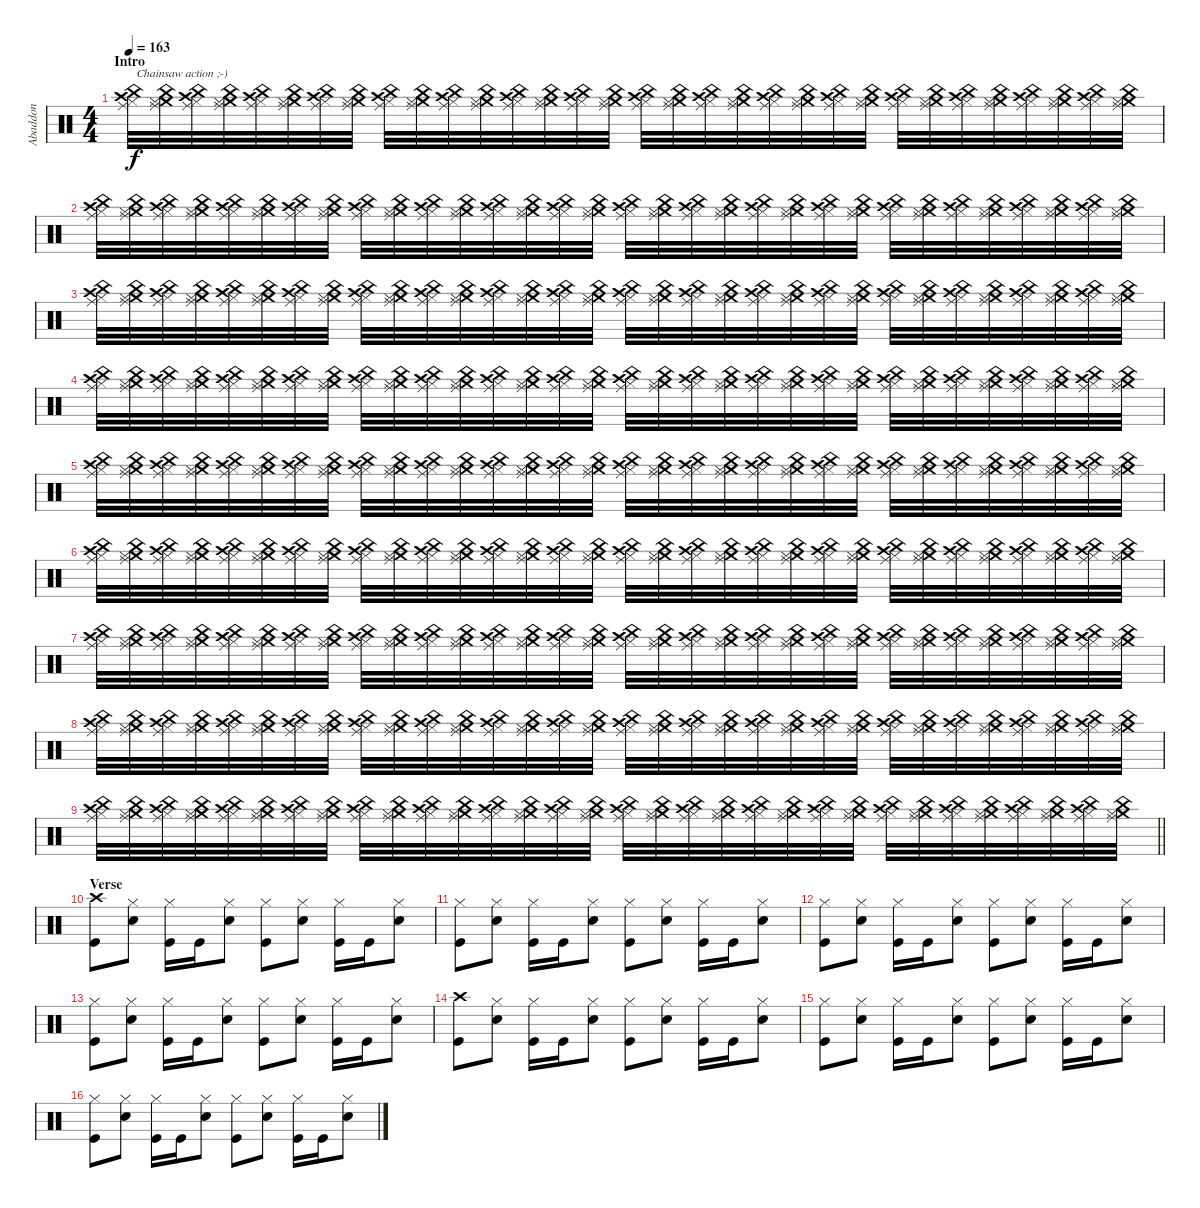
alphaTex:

\track ("Abaddon" "Abaddon") {instrument percussion}
\staff {score}
\articulation defaults
\ts (4 4)
\section ("" "Intro")
\tempo 163
\clef neutral
\ks c
("Crash high (hit)" "Ride (middle)" "Hi-Hat (closed)" "China (hit)").32{txt "Chainsaw action ;-)" dy f} ("Crash medium (hit)" "Ride (middle)" "Hi-Hat (closed)" "China (hit)").32 ("Crash high (hit)" "Ride (middle)" "Hi-Hat (closed)" "China (hit)").32 ("Crash medium (hit)" "Ride (middle)" "Hi-Hat (closed)" "China (hit)").32 ("Crash high (hit)" "Ride (middle)" "Hi-Hat (closed)" "China (hit)").32 ("Crash medium (hit)" "Ride (middle)" "Hi-Hat (closed)" "China (hit)").32 ("Crash high (hit)" "Ride (middle)" "Hi-Hat (closed)" "China (hit)").32 ("Crash medium (hit)" "Ride (middle)" "Hi-Hat (closed)" "China (hit)").32 ("Crash high (hit)" "Ride (middle)" "Hi-Hat (closed)" "China (hit)").32 ("Crash medium (hit)" "Ride (middle)" "Hi-Hat (closed)" "China (hit)").32 ("Crash high (hit)" "Ride (middle)" "Hi-Hat (closed)" "China (hit)").32 ("Crash medium (hit)" "Ride (middle)" "Hi-Hat (closed)" "China (hit)").32 ("Crash high (hit)" "Ride (middle)" "Hi-Hat (closed)" "China (hit)").32 ("Crash medium (hit)" "Ride (middle)" "Hi-Hat (closed)" "China (hit)").32 ("Crash high (hit)" "Ride (middle)" "Hi-Hat (closed)" "China (hit)").32 ("Crash medium (hit)" "Ride (middle)" "Hi-Hat (closed)" "China (hit)").32 ("Crash high (hit)" "Ride (middle)" "Hi-Hat (closed)" "China (hit)").32 ("Crash medium (hit)" "Ride (middle)" "Hi-Hat (closed)" "China (hit)").32 ("Crash high (hit)" "Ride (middle)" "Hi-Hat (closed)" "China (hit)").32 ("Crash medium (hit)" "Ride (middle)" "Hi-Hat (closed)" "China (hit)").32 ("Crash high (hit)" "Ride (middle)" "Hi-Hat (closed)" "China (hit)").32 ("Crash medium (hit)" "Ride (middle)" "Hi-Hat (closed)" "China (hit)").32 ("Crash high (hit)" "Ride (middle)" "Hi-Hat (closed)" "China (hit)").32 ("Crash medium (hit)" "Ride (middle)" "Hi-Hat (closed)" "China (hit)").32 ("Crash high (hit)" "Ride (middle)" "Hi-Hat (closed)" "China (hit)").32 ("Crash medium (hit)" "Ride (middle)" "Hi-Hat (closed)" "China (hit)").32 ("Crash high (hit)" "Ride (middle)" "Hi-Hat (closed)" "China (hit)").32 ("Crash medium (hit)" "Ride (middle)" "Hi-Hat (closed)" "China (hit)").32 ("Crash high (hit)" "Ride (middle)" "Hi-Hat (closed)" "China (hit)").32 ("Crash medium (hit)" "Ride (middle)" "Hi-Hat (closed)" "China (hit)").32 ("Crash high (hit)" "Ride (middle)" "Hi-Hat (closed)" "China (hit)").32 ("Crash medium (hit)" "Ride (middle)" "Hi-Hat (closed)" "China (hit)").32 |
("Crash high (hit)" "Ride (middle)" "Hi-Hat (closed)" "China (hit)").32 ("Crash medium (hit)" "Ride (middle)" "Hi-Hat (closed)" "China (hit)").32 ("Crash high (hit)" "Ride (middle)" "Hi-Hat (closed)" "China (hit)").32 ("Crash medium (hit)" "Ride (middle)" "Hi-Hat (closed)" "China (hit)").32 ("Crash high (hit)" "Ride (middle)" "Hi-Hat (closed)" "China (hit)").32 ("Crash medium (hit)" "Ride (middle)" "Hi-Hat (closed)" "China (hit)").32 ("Crash high (hit)" "Ride (middle)" "Hi-Hat (closed)" "China (hit)").32 ("Crash medium (hit)" "Ride (middle)" "Hi-Hat (closed)" "China (hit)").32 ("Crash high (hit)" "Ride (middle)" "Hi-Hat (closed)" "China (hit)").32 ("Crash medium (hit)" "Ride (middle)" "Hi-Hat (closed)" "China (hit)").32 ("Crash high (hit)" "Ride (middle)" "Hi-Hat (closed)" "China (hit)").32 ("Crash medium (hit)" "Ride (middle)" "Hi-Hat (closed)" "China (hit)").32 ("Crash high (hit)" "Ride (middle)" "Hi-Hat (closed)" "China (hit)").32 ("Crash medium (hit)" "Ride (middle)" "Hi-Hat (closed)" "China (hit)").32 ("Crash high (hit)" "Ride (middle)" "Hi-Hat (closed)" "China (hit)").32 ("Crash medium (hit)" "Ride (middle)" "Hi-Hat (closed)" "China (hit)").32 ("Crash high (hit)" "Ride (middle)" "Hi-Hat (closed)" "China (hit)").32 ("Crash medium (hit)" "Ride (middle)" "Hi-Hat (closed)" "China (hit)").32 ("Crash high (hit)" "Ride (middle)" "Hi-Hat (closed)" "China (hit)").32 ("Crash medium (hit)" "Ride (middle)" "Hi-Hat (closed)" "China (hit)").32 ("Crash high (hit)" "Ride (middle)" "Hi-Hat (closed)" "China (hit)").32 ("Crash medium (hit)" "Ride (middle)" "Hi-Hat (closed)" "China (hit)").32 ("Crash high (hit)" "Ride (middle)" "Hi-Hat (closed)" "China (hit)").32 ("Crash medium (hit)" "Ride (middle)" "Hi-Hat (closed)" "China (hit)").32 ("Crash high (hit)" "Ride (middle)" "Hi-Hat (closed)" "China (hit)").32 ("Crash medium (hit)" "Ride (middle)" "Hi-Hat (closed)" "China (hit)").32 ("Crash high (hit)" "Ride (middle)" "Hi-Hat (closed)" "China (hit)").32 ("Crash medium (hit)" "Ride (middle)" "Hi-Hat (closed)" "China (hit)").32 ("Crash high (hit)" "Ride (middle)" "Hi-Hat (closed)" "China (hit)").32 ("Crash medium (hit)" "Ride (middle)" "Hi-Hat (closed)" "China (hit)").32 ("Crash high (hit)" "Ride (middle)" "Hi-Hat (closed)" "China (hit)").32 ("Crash medium (hit)" "Ride (middle)" "Hi-Hat (closed)" "China (hit)").32 |
("Crash high (hit)" "Ride (middle)" "Hi-Hat (closed)" "China (hit)").32 ("Crash medium (hit)" "Ride (middle)" "Hi-Hat (closed)" "China (hit)").32 ("Crash high (hit)" "Ride (middle)" "Hi-Hat (closed)" "China (hit)").32 ("Crash medium (hit)" "Ride (middle)" "Hi-Hat (closed)" "China (hit)").32 ("Crash high (hit)" "Ride (middle)" "Hi-Hat (closed)" "China (hit)").32 ("Crash medium (hit)" "Ride (middle)" "Hi-Hat (closed)" "China (hit)").32 ("Crash high (hit)" "Ride (middle)" "Hi-Hat (closed)" "China (hit)").32 ("Crash medium (hit)" "Ride (middle)" "Hi-Hat (closed)" "China (hit)").32 ("Crash high (hit)" "Ride (middle)" "Hi-Hat (closed)" "China (hit)").32 ("Crash medium (hit)" "Ride (middle)" "Hi-Hat (closed)" "China (hit)").32 ("Crash high (hit)" "Ride (middle)" "Hi-Hat (closed)" "China (hit)").32 ("Crash medium (hit)" "Ride (middle)" "Hi-Hat (closed)" "China (hit)").32 ("Crash high (hit)" "Ride (middle)" "Hi-Hat (closed)" "China (hit)").32 ("Crash medium (hit)" "Ride (middle)" "Hi-Hat (closed)" "China (hit)").32 ("Crash high (hit)" "Ride (middle)" "Hi-Hat (closed)" "China (hit)").32 ("Crash medium (hit)" "Ride (middle)" "Hi-Hat (closed)" "China (hit)").32 ("Crash high (hit)" "Ride (middle)" "Hi-Hat (closed)" "China (hit)").32 ("Crash medium (hit)" "Ride (middle)" "Hi-Hat (closed)" "China (hit)").32 ("Crash high (hit)" "Ride (middle)" "Hi-Hat (closed)" "China (hit)").32 ("Crash medium (hit)" "Ride (middle)" "Hi-Hat (closed)" "China (hit)").32 ("Crash high (hit)" "Ride (middle)" "Hi-Hat (closed)" "China (hit)").32 ("Crash medium (hit)" "Ride (middle)" "Hi-Hat (closed)" "China (hit)").32 ("Crash high (hit)" "Ride (middle)" "Hi-Hat (closed)" "China (hit)").32 ("Crash medium (hit)" "Ride (middle)" "Hi-Hat (closed)" "China (hit)").32 ("Crash high (hit)" "Ride (middle)" "Hi-Hat (closed)" "China (hit)").32 ("Crash medium (hit)" "Ride (middle)" "Hi-Hat (closed)" "China (hit)").32 ("Crash high (hit)" "Ride (middle)" "Hi-Hat (closed)" "China (hit)").32 ("Crash medium (hit)" "Ride (middle)" "Hi-Hat (closed)" "China (hit)").32 ("Crash high (hit)" "Ride (middle)" "Hi-Hat (closed)" "China (hit)").32 ("Crash medium (hit)" "Ride (middle)" "Hi-Hat (closed)" "China (hit)").32 ("Crash high (hit)" "Ride (middle)" "Hi-Hat (closed)" "China (hit)").32 ("Crash medium (hit)" "Ride (middle)" "Hi-Hat (closed)" "China (hit)").32 |
("Crash high (hit)" "Ride (middle)" "Hi-Hat (closed)" "China (hit)").32 ("Crash medium (hit)" "Ride (middle)" "Hi-Hat (closed)" "China (hit)").32 ("Crash high (hit)" "Ride (middle)" "Hi-Hat (closed)" "China (hit)").32 ("Crash medium (hit)" "Ride (middle)" "Hi-Hat (closed)" "China (hit)").32 ("Crash high (hit)" "Ride (middle)" "Hi-Hat (closed)" "China (hit)").32 ("Crash medium (hit)" "Ride (middle)" "Hi-Hat (closed)" "China (hit)").32 ("Crash high (hit)" "Ride (middle)" "Hi-Hat (closed)" "China (hit)").32 ("Crash medium (hit)" "Ride (middle)" "Hi-Hat (closed)" "China (hit)").32 ("Crash high (hit)" "Ride (middle)" "Hi-Hat (closed)" "China (hit)").32 ("Crash medium (hit)" "Ride (middle)" "Hi-Hat (closed)" "China (hit)").32 ("Crash high (hit)" "Ride (middle)" "Hi-Hat (closed)" "China (hit)").32 ("Crash medium (hit)" "Ride (middle)" "Hi-Hat (closed)" "China (hit)").32 ("Crash high (hit)" "Ride (middle)" "Hi-Hat (closed)" "China (hit)").32 ("Crash medium (hit)" "Ride (middle)" "Hi-Hat (closed)" "China (hit)").32 ("Crash high (hit)" "Ride (middle)" "Hi-Hat (closed)" "China (hit)").32 ("Crash medium (hit)" "Ride (middle)" "Hi-Hat (closed)" "China (hit)").32 ("Crash high (hit)" "Ride (middle)" "Hi-Hat (closed)" "China (hit)").32 ("Crash medium (hit)" "Ride (middle)" "Hi-Hat (closed)" "China (hit)").32 ("Crash high (hit)" "Ride (middle)" "Hi-Hat (closed)" "China (hit)").32 ("Crash medium (hit)" "Ride (middle)" "Hi-Hat (closed)" "China (hit)").32 ("Crash high (hit)" "Ride (middle)" "Hi-Hat (closed)" "China (hit)").32 ("Crash medium (hit)" "Ride (middle)" "Hi-Hat (closed)" "China (hit)").32 ("Crash high (hit)" "Ride (middle)" "Hi-Hat (closed)" "China (hit)").32 ("Crash medium (hit)" "Ride (middle)" "Hi-Hat (closed)" "China (hit)").32 ("Crash high (hit)" "Ride (middle)" "Hi-Hat (closed)" "China (hit)").32 ("Crash medium (hit)" "Ride (middle)" "Hi-Hat (closed)" "China (hit)").32 ("Crash high (hit)" "Ride (middle)" "Hi-Hat (closed)" "China (hit)").32 ("Crash medium (hit)" "Ride (middle)" "Hi-Hat (closed)" "China (hit)").32 ("Crash high (hit)" "Ride (middle)" "Hi-Hat (closed)" "China (hit)").32 ("Crash medium (hit)" "Ride (middle)" "Hi-Hat (closed)" "China (hit)").32 ("Crash high (hit)" "Ride (middle)" "Hi-Hat (closed)" "China (hit)").32 ("Crash medium (hit)" "Ride (middle)" "Hi-Hat (closed)" "China (hit)").32 |
("Crash high (hit)" "Ride (middle)" "Hi-Hat (closed)" "China (hit)").32 ("Crash medium (hit)" "Ride (middle)" "Hi-Hat (closed)" "China (hit)").32 ("Crash high (hit)" "Ride (middle)" "Hi-Hat (closed)" "China (hit)").32 ("Crash medium (hit)" "Ride (middle)" "Hi-Hat (closed)" "China (hit)").32 ("Crash high (hit)" "Ride (middle)" "Hi-Hat (closed)" "China (hit)").32 ("Crash medium (hit)" "Ride (middle)" "Hi-Hat (closed)" "China (hit)").32 ("Crash high (hit)" "Ride (middle)" "Hi-Hat (closed)" "China (hit)").32 ("Crash medium (hit)" "Ride (middle)" "Hi-Hat (closed)" "China (hit)").32 ("Crash high (hit)" "Ride (middle)" "Hi-Hat (closed)" "China (hit)").32 ("Crash medium (hit)" "Ride (middle)" "Hi-Hat (closed)" "China (hit)").32 ("Crash high (hit)" "Ride (middle)" "Hi-Hat (closed)" "China (hit)").32 ("Crash medium (hit)" "Ride (middle)" "Hi-Hat (closed)" "China (hit)").32 ("Crash high (hit)" "Ride (middle)" "Hi-Hat (closed)" "China (hit)").32 ("Crash medium (hit)" "Ride (middle)" "Hi-Hat (closed)" "China (hit)").32 ("Crash high (hit)" "Ride (middle)" "Hi-Hat (closed)" "China (hit)").32 ("Crash medium (hit)" "Ride (middle)" "Hi-Hat (closed)" "China (hit)").32 ("Crash high (hit)" "Ride (middle)" "Hi-Hat (closed)" "China (hit)").32 ("Crash medium (hit)" "Ride (middle)" "Hi-Hat (closed)" "China (hit)").32 ("Crash high (hit)" "Ride (middle)" "Hi-Hat (closed)" "China (hit)").32 ("Crash medium (hit)" "Ride (middle)" "Hi-Hat (closed)" "China (hit)").32 ("Crash high (hit)" "Ride (middle)" "Hi-Hat (closed)" "China (hit)").32 ("Crash medium (hit)" "Ride (middle)" "Hi-Hat (closed)" "China (hit)").32 ("Crash high (hit)" "Ride (middle)" "Hi-Hat (closed)" "China (hit)").32 ("Crash medium (hit)" "Ride (middle)" "Hi-Hat (closed)" "China (hit)").32 ("Crash high (hit)" "Ride (middle)" "Hi-Hat (closed)" "China (hit)").32 ("Crash medium (hit)" "Ride (middle)" "Hi-Hat (closed)" "China (hit)").32 ("Crash high (hit)" "Ride (middle)" "Hi-Hat (closed)" "China (hit)").32 ("Crash medium (hit)" "Ride (middle)" "Hi-Hat (closed)" "China (hit)").32 ("Crash high (hit)" "Ride (middle)" "Hi-Hat (closed)" "China (hit)").32 ("Crash medium (hit)" "Ride (middle)" "Hi-Hat (closed)" "China (hit)").32 ("Crash high (hit)" "Ride (middle)" "Hi-Hat (closed)" "China (hit)").32 ("Crash medium (hit)" "Ride (middle)" "Hi-Hat (closed)" "China (hit)").32 |
("Crash high (hit)" "Ride (middle)" "Hi-Hat (closed)" "China (hit)").32 ("Crash medium (hit)" "Ride (middle)" "Hi-Hat (closed)" "China (hit)").32 ("Crash high (hit)" "Ride (middle)" "Hi-Hat (closed)" "China (hit)").32 ("Crash medium (hit)" "Ride (middle)" "Hi-Hat (closed)" "China (hit)").32 ("Crash high (hit)" "Ride (middle)" "Hi-Hat (closed)" "China (hit)").32 ("Crash medium (hit)" "Ride (middle)" "Hi-Hat (closed)" "China (hit)").32 ("Crash high (hit)" "Ride (middle)" "Hi-Hat (closed)" "China (hit)").32 ("Crash medium (hit)" "Ride (middle)" "Hi-Hat (closed)" "China (hit)").32 ("Crash high (hit)" "Ride (middle)" "Hi-Hat (closed)" "China (hit)").32 ("Crash medium (hit)" "Ride (middle)" "Hi-Hat (closed)" "China (hit)").32 ("Crash high (hit)" "Ride (middle)" "Hi-Hat (closed)" "China (hit)").32 ("Crash medium (hit)" "Ride (middle)" "Hi-Hat (closed)" "China (hit)").32 ("Crash high (hit)" "Ride (middle)" "Hi-Hat (closed)" "China (hit)").32 ("Crash medium (hit)" "Ride (middle)" "Hi-Hat (closed)" "China (hit)").32 ("Crash high (hit)" "Ride (middle)" "Hi-Hat (closed)" "China (hit)").32 ("Crash medium (hit)" "Ride (middle)" "Hi-Hat (closed)" "China (hit)").32 ("Crash high (hit)" "Ride (middle)" "Hi-Hat (closed)" "China (hit)").32 ("Crash medium (hit)" "Ride (middle)" "Hi-Hat (closed)" "China (hit)").32 ("Crash high (hit)" "Ride (middle)" "Hi-Hat (closed)" "China (hit)").32 ("Crash medium (hit)" "Ride (middle)" "Hi-Hat (closed)" "China (hit)").32 ("Crash high (hit)" "Ride (middle)" "Hi-Hat (closed)" "China (hit)").32 ("Crash medium (hit)" "Ride (middle)" "Hi-Hat (closed)" "China (hit)").32 ("Crash high (hit)" "Ride (middle)" "Hi-Hat (closed)" "China (hit)").32 ("Crash medium (hit)" "Ride (middle)" "Hi-Hat (closed)" "China (hit)").32 ("Crash high (hit)" "Ride (middle)" "Hi-Hat (closed)" "China (hit)").32 ("Crash medium (hit)" "Ride (middle)" "Hi-Hat (closed)" "China (hit)").32 ("Crash high (hit)" "Ride (middle)" "Hi-Hat (closed)" "China (hit)").32 ("Crash medium (hit)" "Ride (middle)" "Hi-Hat (closed)" "China (hit)").32 ("Crash high (hit)" "Ride (middle)" "Hi-Hat (closed)" "China (hit)").32 ("Crash medium (hit)" "Ride (middle)" "Hi-Hat (closed)" "China (hit)").32 ("Crash high (hit)" "Ride (middle)" "Hi-Hat (closed)" "China (hit)").32 ("Crash medium (hit)" "Ride (middle)" "Hi-Hat (closed)" "China (hit)").32 |
("Crash high (hit)" "Ride (middle)" "Hi-Hat (closed)" "China (hit)").32 ("Crash medium (hit)" "Ride (middle)" "Hi-Hat (closed)" "China (hit)").32 ("Crash high (hit)" "Ride (middle)" "Hi-Hat (closed)" "China (hit)").32 ("Crash medium (hit)" "Ride (middle)" "Hi-Hat (closed)" "China (hit)").32 ("Crash high (hit)" "Ride (middle)" "Hi-Hat (closed)" "China (hit)").32 ("Crash medium (hit)" "Ride (middle)" "Hi-Hat (closed)" "China (hit)").32 ("Crash high (hit)" "Ride (middle)" "Hi-Hat (closed)" "China (hit)").32 ("Crash medium (hit)" "Ride (middle)" "Hi-Hat (closed)" "China (hit)").32 ("Crash high (hit)" "Ride (middle)" "Hi-Hat (closed)" "China (hit)").32 ("Crash medium (hit)" "Ride (middle)" "Hi-Hat (closed)" "China (hit)").32 ("Crash high (hit)" "Ride (middle)" "Hi-Hat (closed)" "China (hit)").32 ("Crash medium (hit)" "Ride (middle)" "Hi-Hat (closed)" "China (hit)").32 ("Crash high (hit)" "Ride (middle)" "Hi-Hat (closed)" "China (hit)").32 ("Crash medium (hit)" "Ride (middle)" "Hi-Hat (closed)" "China (hit)").32 ("Crash high (hit)" "Ride (middle)" "Hi-Hat (closed)" "China (hit)").32 ("Crash medium (hit)" "Ride (middle)" "Hi-Hat (closed)" "China (hit)").32 ("Crash high (hit)" "Ride (middle)" "Hi-Hat (closed)" "China (hit)").32 ("Crash medium (hit)" "Ride (middle)" "Hi-Hat (closed)" "China (hit)").32 ("Crash high (hit)" "Ride (middle)" "Hi-Hat (closed)" "China (hit)").32 ("Crash medium (hit)" "Ride (middle)" "Hi-Hat (closed)" "China (hit)").32 ("Crash high (hit)" "Ride (middle)" "Hi-Hat (closed)" "China (hit)").32 ("Crash medium (hit)" "Ride (middle)" "Hi-Hat (closed)" "China (hit)").32 ("Crash high (hit)" "Ride (middle)" "Hi-Hat (closed)" "China (hit)").32 ("Crash medium (hit)" "Ride (middle)" "Hi-Hat (closed)" "China (hit)").32 ("Crash high (hit)" "Ride (middle)" "Hi-Hat (closed)" "China (hit)").32 ("Crash medium (hit)" "Ride (middle)" "Hi-Hat (closed)" "China (hit)").32 ("Crash high (hit)" "Ride (middle)" "Hi-Hat (closed)" "China (hit)").32 ("Crash medium (hit)" "Ride (middle)" "Hi-Hat (closed)" "China (hit)").32 ("Crash high (hit)" "Ride (middle)" "Hi-Hat (closed)" "China (hit)").32 ("Crash medium (hit)" "Ride (middle)" "Hi-Hat (closed)" "China (hit)").32 ("Crash high (hit)" "Ride (middle)" "Hi-Hat (closed)" "China (hit)").32 ("Crash medium (hit)" "Ride (middle)" "Hi-Hat (closed)" "China (hit)").32 |
("Crash high (hit)" "Ride (middle)" "Hi-Hat (closed)" "China (hit)").32 ("Crash medium (hit)" "Ride (middle)" "Hi-Hat (closed)" "China (hit)").32 ("Crash high (hit)" "Ride (middle)" "Hi-Hat (closed)" "China (hit)").32 ("Crash medium (hit)" "Ride (middle)" "Hi-Hat (closed)" "China (hit)").32 ("Crash high (hit)" "Ride (middle)" "Hi-Hat (closed)" "China (hit)").32 ("Crash medium (hit)" "Ride (middle)" "Hi-Hat (closed)" "China (hit)").32 ("Crash high (hit)" "Ride (middle)" "Hi-Hat (closed)" "China (hit)").32 ("Crash medium (hit)" "Ride (middle)" "Hi-Hat (closed)" "China (hit)").32 ("Crash high (hit)" "Ride (middle)" "Hi-Hat (closed)" "China (hit)").32 ("Crash medium (hit)" "Ride (middle)" "Hi-Hat (closed)" "China (hit)").32 ("Crash high (hit)" "Ride (middle)" "Hi-Hat (closed)" "China (hit)").32 ("Crash medium (hit)" "Ride (middle)" "Hi-Hat (closed)" "China (hit)").32 ("Crash high (hit)" "Ride (middle)" "Hi-Hat (closed)" "China (hit)").32 ("Crash medium (hit)" "Ride (middle)" "Hi-Hat (closed)" "China (hit)").32 ("Crash high (hit)" "Ride (middle)" "Hi-Hat (closed)" "China (hit)").32 ("Crash medium (hit)" "Ride (middle)" "Hi-Hat (closed)" "China (hit)").32 ("Crash high (hit)" "Ride (middle)" "Hi-Hat (closed)" "China (hit)").32 ("Crash medium (hit)" "Ride (middle)" "Hi-Hat (closed)" "China (hit)").32 ("Crash high (hit)" "Ride (middle)" "Hi-Hat (closed)" "China (hit)").32 ("Crash medium (hit)" "Ride (middle)" "Hi-Hat (closed)" "China (hit)").32 ("Crash high (hit)" "Ride (middle)" "Hi-Hat (closed)" "China (hit)").32 ("Crash medium (hit)" "Ride (middle)" "Hi-Hat (closed)" "China (hit)").32 ("Crash high (hit)" "Ride (middle)" "Hi-Hat (closed)" "China (hit)").32 ("Crash medium (hit)" "Ride (middle)" "Hi-Hat (closed)" "China (hit)").32 ("Crash high (hit)" "Ride (middle)" "Hi-Hat (closed)" "China (hit)").32 ("Crash medium (hit)" "Ride (middle)" "Hi-Hat (closed)" "China (hit)").32 ("Crash high (hit)" "Ride (middle)" "Hi-Hat (closed)" "China (hit)").32 ("Crash medium (hit)" "Ride (middle)" "Hi-Hat (closed)" "China (hit)").32 ("Crash high (hit)" "Ride (middle)" "Hi-Hat (closed)" "China (hit)").32 ("Crash medium (hit)" "Ride (middle)" "Hi-Hat (closed)" "China (hit)").32 ("Crash high (hit)" "Ride (middle)" "Hi-Hat (closed)" "China (hit)").32 ("Crash medium (hit)" "Ride (middle)" "Hi-Hat (closed)" "China (hit)").32 |
\barLineRight lightlight
("Crash high (hit)" "Ride (middle)" "Hi-Hat (closed)" "China (hit)").32 ("Crash medium (hit)" "Ride (middle)" "Hi-Hat (closed)" "China (hit)").32 ("Crash high (hit)" "Ride (middle)" "Hi-Hat (closed)" "China (hit)").32 ("Crash medium (hit)" "Ride (middle)" "Hi-Hat (closed)" "China (hit)").32 ("Crash high (hit)" "Ride (middle)" "Hi-Hat (closed)" "China (hit)").32 ("Crash medium (hit)" "Ride (middle)" "Hi-Hat (closed)" "China (hit)").32 ("Crash high (hit)" "Ride (middle)" "Hi-Hat (closed)" "China (hit)").32 ("Crash medium (hit)" "Ride (middle)" "Hi-Hat (closed)" "China (hit)").32 ("Crash high (hit)" "Ride (middle)" "Hi-Hat (closed)" "China (hit)").32 ("Crash medium (hit)" "Ride (middle)" "Hi-Hat (closed)" "China (hit)").32 ("Crash high (hit)" "Ride (middle)" "Hi-Hat (closed)" "China (hit)").32 ("Crash medium (hit)" "Ride (middle)" "Hi-Hat (closed)" "China (hit)").32 ("Crash high (hit)" "Ride (middle)" "Hi-Hat (closed)" "China (hit)").32 ("Crash medium (hit)" "Ride (middle)" "Hi-Hat (closed)" "China (hit)").32 ("Crash high (hit)" "Ride (middle)" "Hi-Hat (closed)" "China (hit)").32 ("Crash medium (hit)" "Ride (middle)" "Hi-Hat (closed)" "China (hit)").32 ("Crash high (hit)" "Ride (middle)" "Hi-Hat (closed)" "China (hit)").32 ("Crash medium (hit)" "Ride (middle)" "Hi-Hat (closed)" "China (hit)").32 ("Crash high (hit)" "Ride (middle)" "Hi-Hat (closed)" "China (hit)").32 ("Crash medium (hit)" "Ride (middle)" "Hi-Hat (closed)" "China (hit)").32 ("Crash high (hit)" "Ride (middle)" "Hi-Hat (closed)" "China (hit)").32 ("Crash medium (hit)" "Ride (middle)" "Hi-Hat (closed)" "China (hit)").32 ("Crash high (hit)" "Ride (middle)" "Hi-Hat (closed)" "China (hit)").32 ("Crash medium (hit)" "Ride (middle)" "Hi-Hat (closed)" "China (hit)").32 ("Crash high (hit)" "Ride (middle)" "Hi-Hat (closed)" "China (hit)").32 ("Crash medium (hit)" "Ride (middle)" "Hi-Hat (closed)" "China (hit)").32 ("Crash high (hit)" "Ride (middle)" "Hi-Hat (closed)" "China (hit)").32 ("Crash medium (hit)" "Ride (middle)" "Hi-Hat (closed)" "China (hit)").32 ("Crash high (hit)" "Ride (middle)" "Hi-Hat (closed)" "China (hit)").32 ("Crash medium (hit)" "Ride (middle)" "Hi-Hat (closed)" "China (hit)").32 ("Crash high (hit)" "Ride (middle)" "Hi-Hat (closed)" "China (hit)").32 ("Crash medium (hit)" "Ride (middle)" "Hi-Hat (closed)" "China (hit)").32 |
\section ("" "Verse")
("Crash high (hit)" "Kick (hit)").8 ("Hi-Hat (closed)" "Snare (hit) 2").8 ("Hi-Hat (closed)" "Kick (hit)").16 "Kick (hit)".16 ("Hi-Hat (closed)" "Snare (hit) 2").8 ("Hi-Hat (closed)" "Kick (hit)").8 ("Hi-Hat (closed)" "Snare (hit) 2").8 ("Hi-Hat (closed)" "Kick (hit)").16 "Kick (hit)".16 ("Hi-Hat (closed)" "Snare (hit) 2").8 |
("Hi-Hat (closed)" "Kick (hit)").8 ("Hi-Hat (closed)" "Snare (hit) 2").8 ("Hi-Hat (closed)" "Kick (hit)").16 "Kick (hit)".16 ("Hi-Hat (closed)" "Snare (hit) 2").8 ("Hi-Hat (closed)" "Kick (hit)").8 ("Hi-Hat (closed)" "Snare (hit) 2").8 ("Hi-Hat (closed)" "Kick (hit)").16 "Kick (hit)".16 ("Hi-Hat (closed)" "Snare (hit) 2").8 |
("Hi-Hat (closed)" "Kick (hit)").8 ("Hi-Hat (closed)" "Snare (hit) 2").8 ("Hi-Hat (closed)" "Kick (hit)").16 "Kick (hit)".16 ("Hi-Hat (closed)" "Snare (hit) 2").8 ("Hi-Hat (closed)" "Kick (hit)").8 ("Hi-Hat (closed)" "Snare (hit) 2").8 ("Hi-Hat (closed)" "Kick (hit)").16 "Kick (hit)".16 ("Hi-Hat (closed)" "Snare (hit) 2").8 |
("Hi-Hat (closed)" "Kick (hit)").8 ("Hi-Hat (closed)" "Snare (hit) 2").8 ("Hi-Hat (closed)" "Kick (hit)").16 "Kick (hit)".16 ("Hi-Hat (closed)" "Snare (hit) 2").8 ("Hi-Hat (closed)" "Kick (hit)").8 ("Hi-Hat (closed)" "Snare (hit) 2").8 ("Hi-Hat (closed)" "Kick (hit)").16 "Kick (hit)".16 ("Hi-Hat (closed)" "Snare (hit) 2").8 |
("Crash high (hit)" "Kick (hit)").8 ("Hi-Hat (closed)" "Snare (hit) 2").8 ("Hi-Hat (closed)" "Kick (hit)").16 "Kick (hit)".16 ("Hi-Hat (closed)" "Snare (hit) 2").8 ("Hi-Hat (closed)" "Kick (hit)").8 ("Hi-Hat (closed)" "Snare (hit) 2").8 ("Hi-Hat (closed)" "Kick (hit)").16 "Kick (hit)".16 ("Hi-Hat (closed)" "Snare (hit) 2").8 |
("Hi-Hat (closed)" "Kick (hit)").8 ("Hi-Hat (closed)" "Snare (hit) 2").8 ("Hi-Hat (closed)" "Kick (hit)").16 "Kick (hit)".16 ("Hi-Hat (closed)" "Snare (hit) 2").8 ("Hi-Hat (closed)" "Kick (hit)").8 ("Hi-Hat (closed)" "Snare (hit) 2").8 ("Hi-Hat (closed)" "Kick (hit)").16 "Kick (hit)".16 ("Hi-Hat (closed)" "Snare (hit) 2").8 |
("Hi-Hat (closed)" "Kick (hit)").8 ("Hi-Hat (closed)" "Snare (hit) 2").8 ("Hi-Hat (closed)" "Kick (hit)").16 "Kick (hit)".16 ("Hi-Hat (closed)" "Snare (hit) 2").8 ("Hi-Hat (closed)" "Kick (hit)").8 ("Hi-Hat (closed)" "Snare (hit) 2").8 ("Hi-Hat (closed)" "Kick (hit)").16 "Kick (hit)".16 ("Hi-Hat (closed)" "Snare (hit) 2").8
